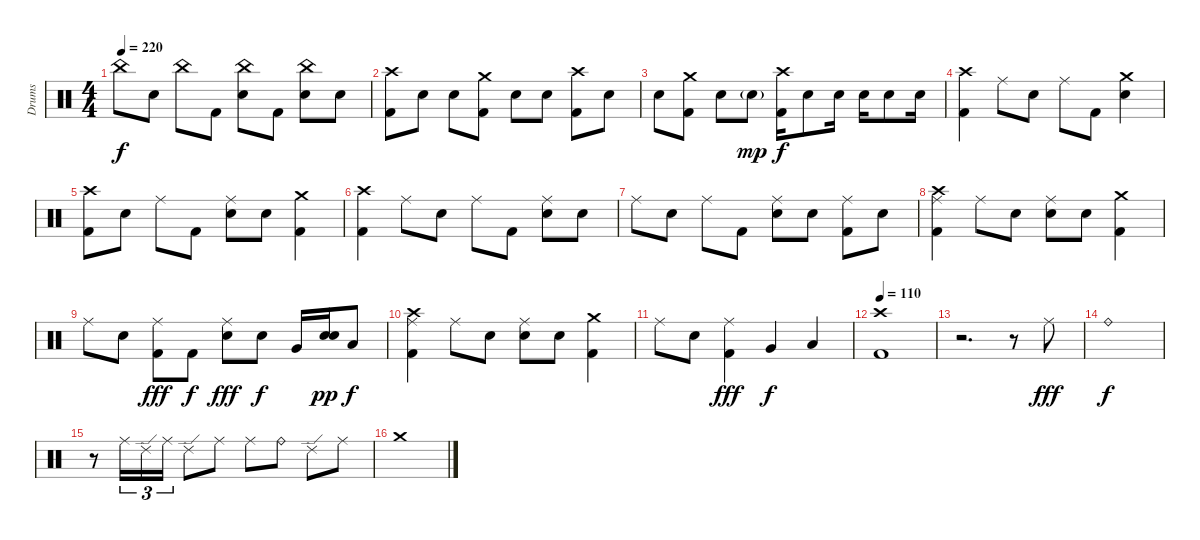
\track ("Drums" "Drums") {instrument percussion}
\staff {score}
\articulation defaults
\ts (4 4)
\tempo 220
\clef neutral
\ks c "China (hit)".8{dy f} "Electric Snare (hit)".8 "China (hit)".8 "Kick (hit) 2".8
("China (hit)" "Electric Snare (hit)").8 "Kick (hit) 2".8 ("China (hit)" "Electric Snare (hit)").8 "Electric Snare (hit)".8 |
("Crash high (hit)" "Kick (hit) 2").8 "Electric Snare (hit)".8 "Electric Snare (hit)".8 ("Crash medium (hit)" "Kick (hit) 2").8 "Electric Snare (hit)".8 "Electric Snare (hit)".8 ("Crash high (hit)" "Kick (hit) 2").8 "Electric Snare (hit)".8 |
"Electric Snare (hit)".8 ("Crash medium (hit)" "Kick (hit) 2").8 "Electric Snare (hit)".8 "Electric Snare (hit)"{g}.8{dy mp} ("Crash high (hit)" "Kick (hit) 2").16{dy f} "Electric Snare (hit)".8 "Electric Snare (hit)".16 "Electric Snare (hit)".16 "Electric Snare (hit)".8 "Electric Snare (hit)".16 |
("Crash high (hit)" "Kick (hit) 2").4 "Ride (middle)".8 "Electric Snare (hit)".8 "Ride (middle)".8 "Kick (hit) 2".8 ("Crash medium (hit)" "Electric Snare (hit)").4 |
("Crash high (hit)" "Kick (hit) 2").8 "Electric Snare (hit)".8 "Ride (middle)".8 "Kick (hit) 2".8 ("Ride (middle)" "Electric Snare (hit)").8 "Electric Snare (hit)".8 ("Crash medium (hit)" "Kick (hit) 2").4 |
("Crash high (hit)" "Kick (hit) 2").4 "Ride (middle)".8 "Electric Snare (hit)".8 "Ride (middle)".8 "Kick (hit) 2".8 ("Ride (middle)" "Electric Snare (hit)").8 "Electric Snare (hit)".8 |
"Ride (middle)".8 "Electric Snare (hit)".8 "Ride (middle)".8 "Kick (hit) 2".8 ("Ride (middle)" "Electric Snare (hit)").8 "Electric Snare (hit)".8 ("Ride (middle)" "Kick (hit) 2").8 "Electric Snare (hit)".8 |
("Crash high (hit)" "Ride (middle)" "Kick (hit) 2").4 "Ride (middle)".8 "Electric Snare (hit)".8 ("Ride (middle)" "Electric Snare (hit)").8 "Electric Snare (hit)".8 ("Crash medium (hit)" "Kick (hit) 2").4 |
"Ride (middle)".8 "Electric Snare (hit)".8 ("Ride (middle)" "Kick (hit) 2").8{dy fff} "Kick (hit) 2".8{dy f} ("Ride (middle)" "Electric Snare (hit)").8{dy fff} "Electric Snare (hit)".8{dy f} "Very Low Tom (hit)".16 ("Snare (hit)" "Snare (hit)").16{dy pp} "Low Floor Tom (hit)".8{dy f} |
("Crash high (hit)" "Ride (middle)" "Kick (hit) 2").4 "Ride (middle)".8 "Electric Snare (hit)".8 ("Ride (middle)" "Electric Snare (hit)").8 "Electric Snare (hit)".8 ("Crash medium (hit)" "Kick (hit) 2").4 |
"Ride (middle)".8 "Electric Snare (hit)".8 ("Ride (middle)" "Kick (hit) 2").4{dy fff} "Very Low Tom (hit)".4{dy f} "Low Floor Tom (hit)".4 |
\tempo 110
("Crash high (hit)" "Kick (hit) 2").1 |
r.2{d} r.8 "Ride (middle)".8{dy fff} |
"Ride (bell)".1{dy f} |
r.8 "Ride (middle)".16{tu (3 2)} "Ride (edge) 2".16{tu (3 2)} "Ride (middle)".16{tu (3 2)} "Ride (edge) 2".8 "Ride (middle)".8 "Ride (middle)".8 "Ride (bell)".8 "Ride (edge) 2".8 "Ride (middle)".8 |
"Crash medium (hit)".1
